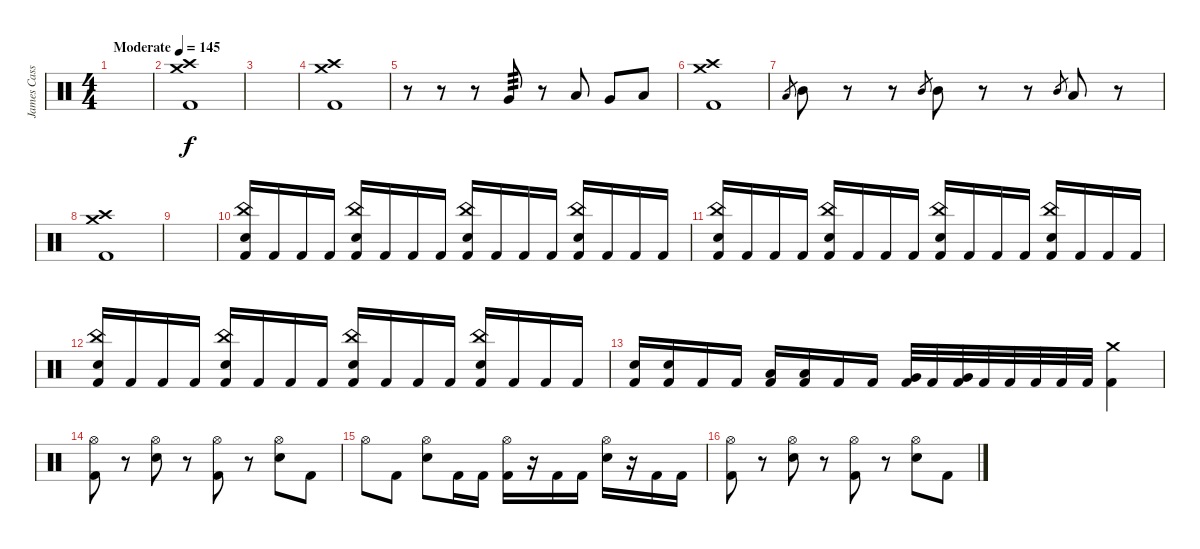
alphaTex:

\track ("James Cassells" "James Cass") {instrument percussion}
\staff {score}
\articulation defaults
\ts (4 4)
\tempo (145 "Moderate")
\clef neutral
\ks c
|
("Crash high (hit)" "Crash medium (hit)" "Kick (hit) 2").1 |
|
("Crash high (hit)" "Crash medium (hit)" "Kick (hit) 2").1 |
r.8 r.8 r.8 "Very Low Tom (hit)".8{tp 3} r.8 "Low Floor Tom (hit)".8 "Very Low Tom (hit)".8 "Low Floor Tom (hit)".8 |
("Crash high (hit)" "Crash medium (hit)" "Kick (hit) 2").1 |
"Low Tom (hit)".8{gr} "Mid Tom (hit)".8 r.8 r.8 "Mid Tom (hit)".8{gr} "Mid Tom (hit)".8 r.8 r.8 "Mid Tom (hit)".8{gr} "Low Floor Tom (hit)".8 r.8 |
("Crash high (hit)" "Crash medium (hit)" "Kick (hit) 2").1 |
|
("China (hit)" "Electric Snare (hit)" "Kick (hit) 2").16 "Kick (hit) 2".16 "Kick (hit) 2".16 "Kick (hit) 2".16 ("China (hit)" "Electric Snare (hit)" "Kick (hit) 2").16 "Kick (hit) 2".16 "Kick (hit) 2".16 "Kick (hit) 2".16 ("China (hit)" "Electric Snare (hit)" "Kick (hit) 2").16 "Kick (hit) 2".16 "Kick (hit) 2".16 "Kick (hit) 2".16 ("China (hit)" "Electric Snare (hit)" "Kick (hit) 2").16 "Kick (hit) 2".16 "Kick (hit) 2".16 "Kick (hit) 2".16 |
("China (hit)" "Electric Snare (hit)" "Kick (hit) 2").16 "Kick (hit) 2".16 "Kick (hit) 2".16 "Kick (hit) 2".16 ("China (hit)" "Electric Snare (hit)" "Kick (hit) 2").16 "Kick (hit) 2".16 "Kick (hit) 2".16 "Kick (hit) 2".16 ("China (hit)" "Electric Snare (hit)" "Kick (hit) 2").16 "Kick (hit) 2".16 "Kick (hit) 2".16 "Kick (hit) 2".16 ("China (hit)" "Electric Snare (hit)" "Kick (hit) 2").16 "Kick (hit) 2".16 "Kick (hit) 2".16 "Kick (hit) 2".16 |
("China (hit)" "Electric Snare (hit)" "Kick (hit) 2").16 "Kick (hit) 2".16 "Kick (hit) 2".16 "Kick (hit) 2".16 ("China (hit)" "Electric Snare (hit)" "Kick (hit) 2").16 "Kick (hit) 2".16 "Kick (hit) 2".16 "Kick (hit) 2".16 ("China (hit)" "Electric Snare (hit)" "Kick (hit) 2").16 "Kick (hit) 2".16 "Kick (hit) 2".16 "Kick (hit) 2".16 ("China (hit)" "Electric Snare (hit)" "Kick (hit) 2").16 "Kick (hit) 2".16 "Kick (hit) 2".16 "Kick (hit) 2".16 |
("Electric Snare (hit)" "Kick (hit) 2").16 ("Electric Snare (hit)" "Kick (hit) 2").16 "Kick (hit) 2".16 "Kick (hit) 2".16 ("Low Tom (hit)" "Kick (hit) 2").16 ("Low Tom (hit)" "Kick (hit) 2").16 "Kick (hit) 2".16 "Kick (hit) 2".16 ("Very Low Tom (hit)" "Kick (hit) 2").32 "Kick (hit) 2".32 ("Very Low Tom (hit)" "Kick (hit) 2").32 "Kick (hit) 2".32 "Kick (hit) 2".32 "Kick (hit) 2".32 "Kick (hit) 2".32 "Kick (hit) 2".32 ("Crash medium (hit)" "Kick (hit) 2").4 |
("Hi-Hat (open)" "Kick (hit) 2").8 r.8 ("Hi-Hat (open)" "Electric Snare (hit)").8 r.8 ("Hi-Hat (open)" "Kick (hit) 2").8 r.8 ("Hi-Hat (open)" "Electric Snare (hit)").8 "Kick (hit) 2".8 |
"Hi-Hat (open)".8 "Kick (hit) 2".8 ("Hi-Hat (open)" "Electric Snare (hit)").8 "Kick (hit) 2".16 "Kick (hit) 2".16 ("Hi-Hat (open)" "Kick (hit) 2").16 r.16 "Kick (hit) 2".16 "Kick (hit) 2".16 ("Hi-Hat (open)" "Electric Snare (hit)").16 r.16 "Kick (hit) 2".16 "Kick (hit) 2".16 |
("Hi-Hat (open)" "Kick (hit) 2").8 r.8 ("Hi-Hat (open)" "Electric Snare (hit)").8 r.8 ("Hi-Hat (open)" "Kick (hit) 2").8 r.8 ("Hi-Hat (open)" "Electric Snare (hit)").8 "Kick (hit) 2".8
